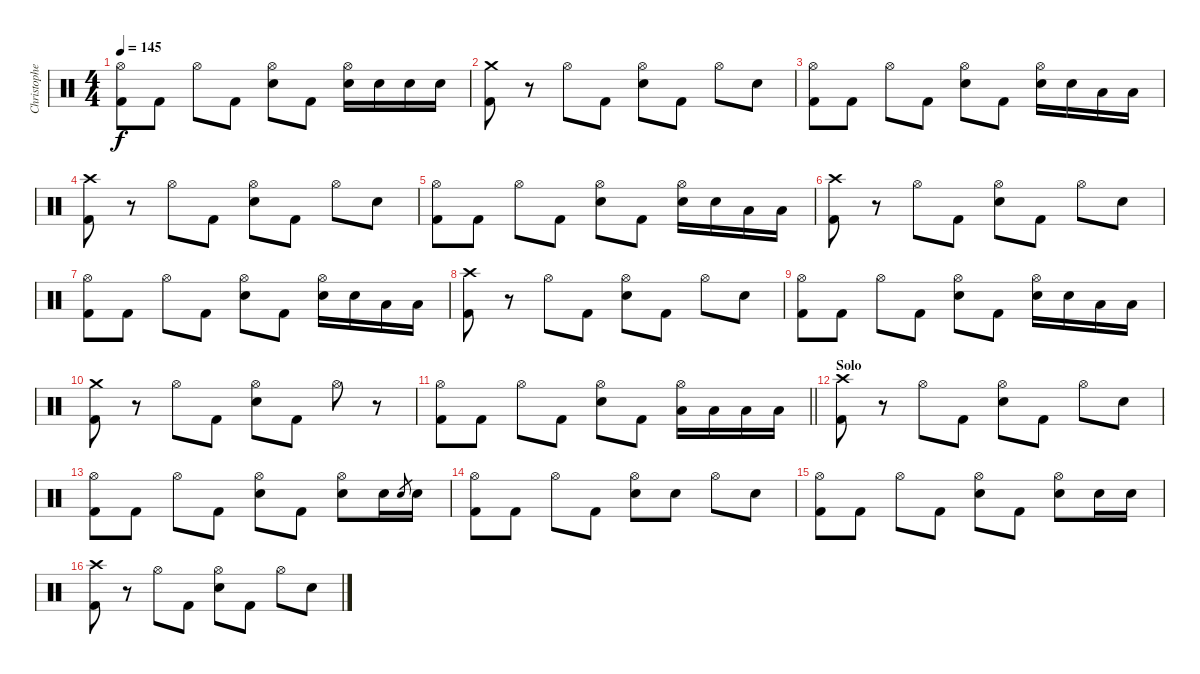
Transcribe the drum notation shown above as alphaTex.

\track ("Christopher - Drums" "Christophe") {instrument percussion}
\staff {score}
\articulation defaults
\ts (4 4)
\tempo 145
\clef neutral
\ks c
("Hi-Hat (open)" "Kick (hit) 2").8{dy f} "Kick (hit) 2".8 "Hi-Hat (open)".8 "Kick (hit) 2".8 ("Hi-Hat (open)" "Electric Snare (hit)").8 "Kick (hit) 2".8 ("Hi-Hat (open)" "Electric Snare (hit)").16 "Electric Snare (hit)".16 "Electric Snare (hit)".16 "Electric Snare (hit)".16 |
("Crash medium (hit)" "Kick (hit) 2").8 r.8 "Hi-Hat (open)".8 "Kick (hit) 2".8 ("Hi-Hat (open)" "Electric Snare (hit)").8 "Kick (hit) 2".8 "Hi-Hat (open)".8 "Electric Snare (hit)".8 |
("Hi-Hat (open)" "Kick (hit) 2").8 "Kick (hit) 2".8 "Hi-Hat (open)".8 "Kick (hit) 2".8 ("Hi-Hat (open)" "Electric Snare (hit)").8 "Kick (hit) 2".8 ("Hi-Hat (open)" "Electric Snare (hit)").16 "Electric Snare (hit)".16 "Low Tom (hit)".16 "Low Tom (hit)".16 |
("Crash high (hit)" "Kick (hit) 2").8 r.8 "Hi-Hat (open)".8 "Kick (hit) 2".8 ("Hi-Hat (open)" "Electric Snare (hit)").8 "Kick (hit) 2".8 "Hi-Hat (open)".8 "Electric Snare (hit)".8 |
("Hi-Hat (open)" "Kick (hit) 2").8 "Kick (hit) 2".8 "Hi-Hat (open)".8 "Kick (hit) 2".8 ("Hi-Hat (open)" "Electric Snare (hit)").8 "Kick (hit) 2".8 ("Hi-Hat (open)" "Electric Snare (hit)").16 "Electric Snare (hit)".16 "Low Tom (hit)".16 "Low Tom (hit)".16 |
("Crash high (hit)" "Kick (hit) 2").8 r.8 "Hi-Hat (open)".8 "Kick (hit) 2".8 ("Hi-Hat (open)" "Electric Snare (hit)").8 "Kick (hit) 2".8 "Hi-Hat (open)".8 "Electric Snare (hit)".8 |
("Hi-Hat (open)" "Kick (hit) 2").8 "Kick (hit) 2".8 "Hi-Hat (open)".8 "Kick (hit) 2".8 ("Hi-Hat (open)" "Electric Snare (hit)").8 "Kick (hit) 2".8 ("Hi-Hat (open)" "Electric Snare (hit)").16 "Electric Snare (hit)".16 "Low Tom (hit)".16 "Low Tom (hit)".16 |
("Crash high (hit)" "Kick (hit) 2").8 r.8 "Hi-Hat (open)".8 "Kick (hit) 2".8 ("Hi-Hat (open)" "Electric Snare (hit)").8 "Kick (hit) 2".8 "Hi-Hat (open)".8 "Electric Snare (hit)".8 |
("Hi-Hat (open)" "Kick (hit) 2").8 "Kick (hit) 2".8 "Hi-Hat (open)".8 "Kick (hit) 2".8 ("Hi-Hat (open)" "Electric Snare (hit)").8 "Kick (hit) 2".8 ("Hi-Hat (open)" "Electric Snare (hit)").16 "Electric Snare (hit)".16 "Low Tom (hit)".16 "Low Tom (hit)".16 |
("Crash medium (hit)" "Kick (hit) 2").8 r.8 "Hi-Hat (open)".8 "Kick (hit) 2".8 ("Hi-Hat (open)" "Electric Snare (hit)").8 "Kick (hit) 2".8 "Hi-Hat (open)".8 r.8 |
\barLineRight lightlight
("Hi-Hat (open)" "Kick (hit) 2").8 "Kick (hit) 2".8 "Hi-Hat (open)".8 "Kick (hit) 2".8 ("Hi-Hat (open)" "Electric Snare (hit)").8 "Kick (hit) 2".8 ("Hi-Hat (open)" "Low Floor Tom (hit)").16 "Low Floor Tom (hit)".16 "Low Floor Tom (hit)".16 "Low Floor Tom (hit)".16 |
\section ("" "Solo")
("Crash high (hit)" "Kick (hit) 2").8 r.8 "Hi-Hat (open)".8 "Kick (hit) 2".8 ("Hi-Hat (open)" "Electric Snare (hit)").8 "Kick (hit) 2".8 "Hi-Hat (open)".8 "Electric Snare (hit)".8 |
("Hi-Hat (open)" "Kick (hit) 2").8 "Kick (hit) 2".8 "Hi-Hat (open)".8 "Kick (hit) 2".8 ("Hi-Hat (open)" "Electric Snare (hit)").8 "Kick (hit) 2".8 ("Hi-Hat (open)" "Electric Snare (hit)").8 "Electric Snare (hit)".16 "Electric Snare (hit)".8{gr} "Electric Snare (hit)".16 |
("Hi-Hat (open)" "Kick (hit) 2").8 "Kick (hit) 2".8 "Hi-Hat (open)".8 "Kick (hit) 2".8 ("Hi-Hat (open)" "Electric Snare (hit)").8 "Electric Snare (hit)".8 "Hi-Hat (open)".8 "Electric Snare (hit)".8 |
("Hi-Hat (open)" "Kick (hit) 2").8 "Kick (hit) 2".8 "Hi-Hat (open)".8 "Kick (hit) 2".8 ("Hi-Hat (open)" "Electric Snare (hit)").8 "Kick (hit) 2".8 ("Hi-Hat (open)" "Electric Snare (hit)").8 "Electric Snare (hit)".16 "Electric Snare (hit)".16 |
("Crash high (hit)" "Kick (hit) 2").8 r.8 "Hi-Hat (open)".8 "Kick (hit) 2".8 ("Hi-Hat (open)" "Electric Snare (hit)").8 "Kick (hit) 2".8 "Hi-Hat (open)".8 "Electric Snare (hit)".8
